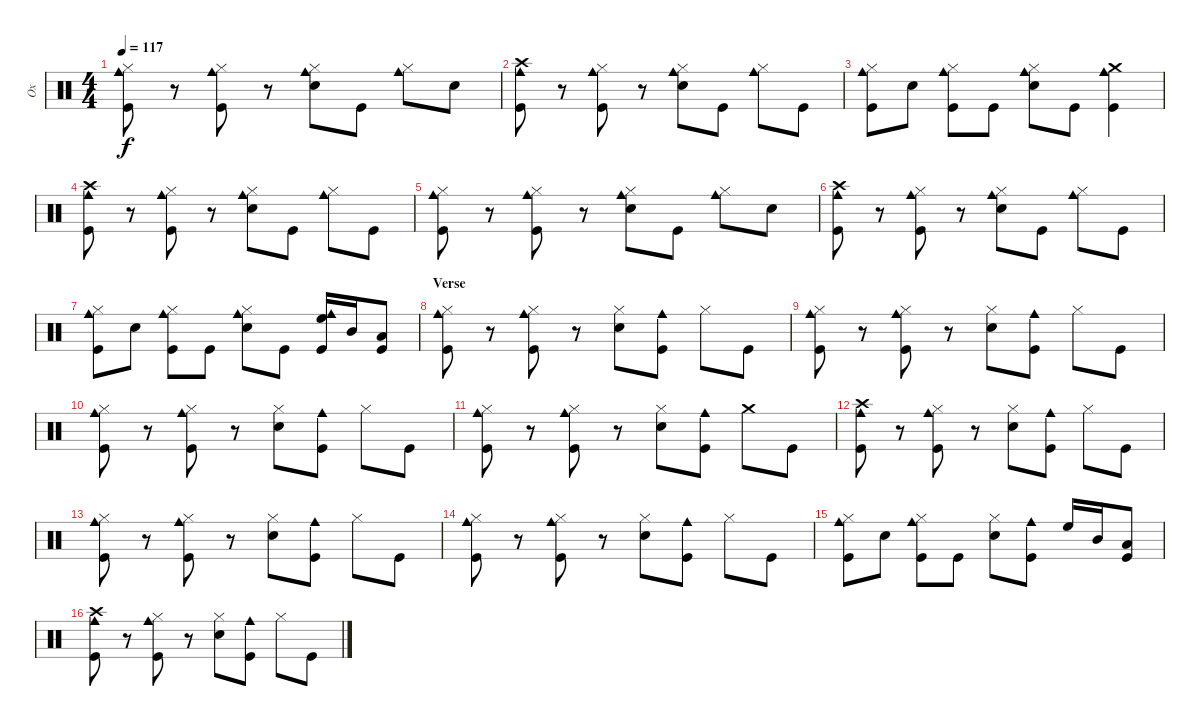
\track ("Ox" "Ox") {instrument percussion}
\staff {score}
\articulation defaults
\ts (4 4)
\tempo 117
\clef neutral
\ks c
("Kick (hit)" "Hi-Hat (closed)" "Cowbell medium (hit)").8{dy f} r.8 ("Kick (hit)" "Hi-Hat (closed)" "Cowbell medium (hit)").8 r.8 ("Snare (hit) 2" "Hi-Hat (closed)" "Cowbell medium (hit)").8 "Kick (hit)".8 ("Hi-Hat (closed)" "Cowbell medium (hit)").8 "Snare (hit) 2".8 |
("Kick (hit)" "Cowbell medium (hit)" "Crash high (hit)").8 r.8 ("Kick (hit)" "Hi-Hat (closed)" "Cowbell medium (hit)").8 r.8 ("Snare (hit) 2" "Hi-Hat (closed)" "Cowbell medium (hit)").8 "Kick (hit)".8 ("Hi-Hat (closed)" "Cowbell medium (hit)").8 "Kick (hit)".8 |
("Kick (hit)" "Hi-Hat (closed)" "Cowbell medium (hit)").8 "Snare (hit) 2".8 ("Kick (hit)" "Hi-Hat (closed)" "Cowbell medium (hit)").8 "Kick (hit)".8 ("Snare (hit) 2" "Hi-Hat (closed)" "Cowbell medium (hit)").8 "Kick (hit)".8 ("Cowbell medium (hit)" "Kick (hit)" "Crash medium (hit)").4 |
("Kick (hit)" "Crash high (hit)" "Cowbell medium (hit)").8 r.8 ("Kick (hit)" "Hi-Hat (closed)" "Cowbell medium (hit)").8 r.8 ("Snare (hit) 2" "Hi-Hat (closed)" "Cowbell medium (hit)").8 "Kick (hit)".8 ("Hi-Hat (closed)" "Cowbell medium (hit)").8 "Kick (hit)".8 |
("Kick (hit)" "Hi-Hat (closed)" "Cowbell medium (hit)").8 r.8 ("Kick (hit)" "Hi-Hat (closed)" "Cowbell medium (hit)").8 r.8 ("Snare (hit) 2" "Hi-Hat (closed)" "Cowbell medium (hit)").8 "Kick (hit)".8 ("Hi-Hat (closed)" "Cowbell medium (hit)").8 "Snare (hit) 2".8 |
("Kick (hit)" "Cowbell medium (hit)" "Crash high (hit)").8 r.8 ("Kick (hit)" "Hi-Hat (closed)" "Cowbell medium (hit)").8 r.8 ("Snare (hit) 2" "Hi-Hat (closed)" "Cowbell medium (hit)").8 "Kick (hit)".8 ("Hi-Hat (closed)" "Cowbell medium (hit)").8 "Kick (hit)".8 |
("Kick (hit)" "Hi-Hat (closed)" "Cowbell medium (hit)").8 "Snare (hit) 2".8 ("Kick (hit)" "Hi-Hat (closed)" "Cowbell medium (hit)").8 "Kick (hit)".8 ("Snare (hit) 2" "Hi-Hat (closed)" "Cowbell medium (hit)").8 "Kick (hit)".8 ("Cowbell medium (hit)" "Kick (hit)" "High Floor Tom (hit)").16 "Mid Tom (hit)".16 ("Kick (hit)" "Low Floor Tom (hit)").8 |
\section ("" "Verse")
("Kick (hit)" "Hi-Hat (closed)" "Cowbell medium (hit)").8 r.8 ("Kick (hit)" "Hi-Hat (closed)" "Cowbell medium (hit)").8 r.8 ("Snare (hit) 2" "Hi-Hat (closed)").8 ("Kick (hit)" "Cowbell medium (hit)").8 "Hi-Hat (closed)".8 "Kick (hit)".8 |
("Kick (hit)" "Hi-Hat (closed)" "Cowbell medium (hit)").8 r.8 ("Kick (hit)" "Hi-Hat (closed)" "Cowbell medium (hit)").8 r.8 ("Snare (hit) 2" "Hi-Hat (closed)").8 ("Kick (hit)" "Cowbell medium (hit)").8 "Hi-Hat (closed)".8 "Kick (hit)".8 |
("Kick (hit)" "Hi-Hat (closed)" "Cowbell medium (hit)").8 r.8 ("Kick (hit)" "Hi-Hat (closed)" "Cowbell medium (hit)").8 r.8 ("Snare (hit) 2" "Hi-Hat (closed)").8 ("Kick (hit)" "Cowbell medium (hit)").8 "Hi-Hat (closed)".8 "Kick (hit)".8 |
("Kick (hit)" "Hi-Hat (closed)" "Cowbell medium (hit)").8 r.8 ("Kick (hit)" "Hi-Hat (closed)" "Cowbell medium (hit)").8 r.8 ("Snare (hit) 2" "Hi-Hat (closed)").8 ("Kick (hit)" "Cowbell medium (hit)").8 "Crash medium (hit)".8 "Kick (hit)".8 |
("Kick (hit)" "Crash high (hit)" "Cowbell medium (hit)").8 r.8 ("Kick (hit)" "Hi-Hat (closed)" "Cowbell medium (hit)").8 r.8 ("Snare (hit) 2" "Hi-Hat (closed)").8 ("Kick (hit)" "Cowbell medium (hit)").8 "Hi-Hat (closed)".8 "Kick (hit)".8 |
("Kick (hit)" "Hi-Hat (closed)" "Cowbell medium (hit)").8 r.8 ("Kick (hit)" "Hi-Hat (closed)" "Cowbell medium (hit)").8 r.8 ("Snare (hit) 2" "Hi-Hat (closed)").8 ("Kick (hit)" "Cowbell medium (hit)").8 "Hi-Hat (closed)".8 "Kick (hit)".8 |
("Kick (hit)" "Hi-Hat (closed)" "Cowbell medium (hit)").8 r.8 ("Kick (hit)" "Hi-Hat (closed)" "Cowbell medium (hit)").8 r.8 ("Snare (hit) 2" "Hi-Hat (closed)").8 ("Kick (hit)" "Cowbell medium (hit)").8 "Hi-Hat (closed)".8 "Kick (hit)".8 |
("Kick (hit)" "Hi-Hat (closed)" "Cowbell medium (hit)").8 "Snare (hit) 2".8 ("Kick (hit)" "Hi-Hat (closed)" "Cowbell medium (hit)").8 "Kick (hit)".8 ("Snare (hit) 2" "Hi-Hat (closed)").8 ("Kick (hit)" "Cowbell medium (hit)").8 "High Floor Tom (hit)".16 "Mid Tom (hit)".16 ("Kick (hit)" "Low Floor Tom (hit)").8 |
("Kick (hit)" "Crash high (hit)" "Cowbell medium (hit)").8 r.8 ("Kick (hit)" "Hi-Hat (closed)" "Cowbell medium (hit)").8 r.8 ("Snare (hit) 2" "Hi-Hat (closed)").8 ("Kick (hit)" "Cowbell medium (hit)").8 "Hi-Hat (closed)".8 "Kick (hit)".8
